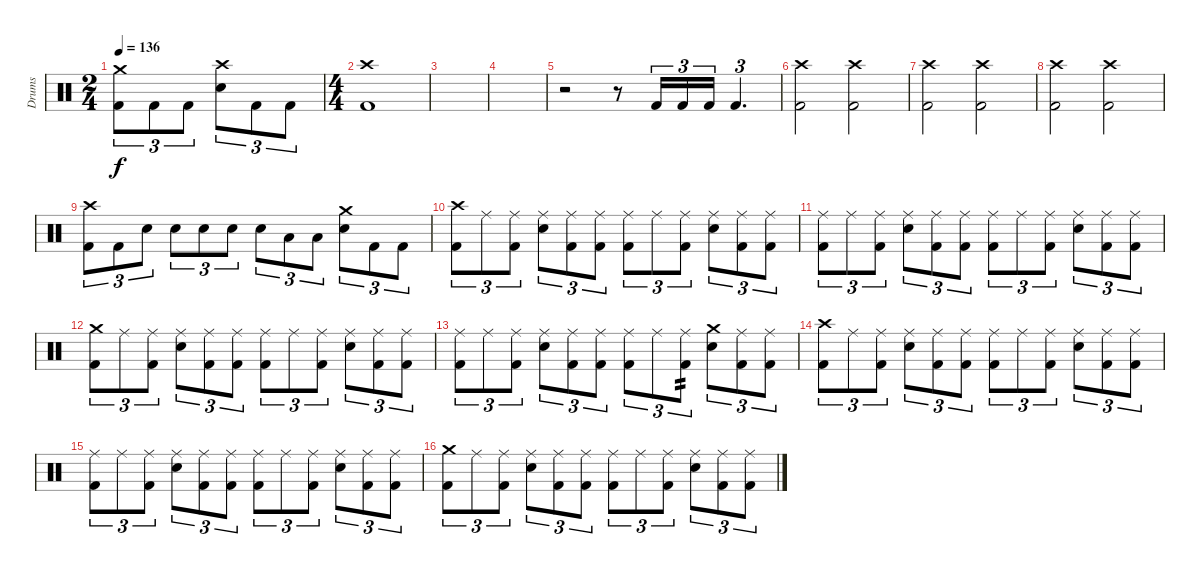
\track ("Drums" "Drums") {instrument percussion}
\staff {score}
\articulation defaults
\ts (2 4)
\tempo 136
\clef neutral
\ks c
("Crash medium (hit)" "Kick (hit) 2").8{tu (3 2) dy f} "Kick (hit) 2".8{tu (3 2)} "Kick (hit) 2".8{tu (3 2)} ("Crash high (hit)" "Electric Snare (hit)").8{tu (3 2)} "Kick (hit) 2".8{tu (3 2)} "Kick (hit) 2".8{tu (3 2)} |
\ts (4 4)
("Crash high (hit)" "Kick (hit) 2").1 |
|
|
r.2 r.8 "Kick (hit) 2".16{tu (3 2)} "Kick (hit) 2".16{tu (3 2)} "Kick (hit) 2".16{tu (3 2)} "Kick (hit) 2".4{d tu (3 2)} |
("Crash high (hit)" "Kick (hit) 2").2 ("Crash high (hit)" "Kick (hit) 2").2 |
("Crash high (hit)" "Kick (hit) 2").2 ("Crash high (hit)" "Kick (hit) 2").2 |
("Crash high (hit)" "Kick (hit) 2").2 ("Crash high (hit)" "Kick (hit) 2").2 |
("Crash high (hit)" "Kick (hit) 2").8{tu (3 2)} "Kick (hit) 2".8{tu (3 2)} "Electric Snare (hit)".8{tu (3 2)} "Electric Snare (hit)".8{tu (3 2)} "Electric Snare (hit)".8{tu (3 2)} "Electric Snare (hit)".8{tu (3 2)} "Electric Snare (hit)".8{tu (3 2)} "Low Floor Tom (hit)".8{tu (3 2)} "Low Floor Tom (hit)".8{tu (3 2)} ("Crash medium (hit)" "Electric Snare (hit)").8{tu (3 2)} "Kick (hit) 2".8{tu (3 2)} "Kick (hit) 2".8{tu (3 2)} |
("Crash high (hit)" "Kick (hit) 2").8{tu (3 2)} "Ride (middle)".8{tu (3 2)} ("Ride (middle)" "Kick (hit) 2").8{tu (3 2)} ("Ride (middle)" "Electric Snare (hit)").8{tu (3 2)} ("Ride (middle)" "Kick (hit) 2").8{tu (3 2)} ("Ride (middle)" "Kick (hit) 2").8{tu (3 2)} ("Ride (middle)" "Kick (hit) 2").8{tu (3 2)} "Ride (middle)".8{tu (3 2)} ("Ride (middle)" "Kick (hit) 2").8{tu (3 2)} ("Ride (middle)" "Electric Snare (hit)").8{tu (3 2)} ("Ride (middle)" "Kick (hit) 2").8{tu (3 2)} ("Ride (middle)" "Kick (hit) 2").8{tu (3 2)} |
("Ride (middle)" "Kick (hit) 2").8{tu (3 2)} "Ride (middle)".8{tu (3 2)} ("Ride (middle)" "Kick (hit) 2").8{tu (3 2)} ("Ride (middle)" "Electric Snare (hit)").8{tu (3 2)} ("Ride (middle)" "Kick (hit) 2").8{tu (3 2)} ("Ride (middle)" "Kick (hit) 2").8{tu (3 2)} ("Ride (middle)" "Kick (hit) 2").8{tu (3 2)} "Ride (middle)".8{tu (3 2)} ("Ride (middle)" "Kick (hit) 2").8{tu (3 2)} ("Ride (middle)" "Electric Snare (hit)").8{tu (3 2)} ("Ride (middle)" "Kick (hit) 2").8{tu (3 2)} ("Ride (middle)" "Kick (hit) 2").8{tu (3 2)} |
("Crash medium (hit)" "Kick (hit) 2").8{tu (3 2)} "Ride (middle)".8{tu (3 2)} ("Ride (middle)" "Kick (hit) 2").8{tu (3 2)} ("Ride (middle)" "Electric Snare (hit)").8{tu (3 2)} ("Ride (middle)" "Kick (hit) 2").8{tu (3 2)} ("Ride (middle)" "Kick (hit) 2").8{tu (3 2)} ("Ride (middle)" "Kick (hit) 2").8{tu (3 2)} "Ride (middle)".8{tu (3 2)} ("Ride (middle)" "Kick (hit) 2").8{tu (3 2)} ("Ride (middle)" "Electric Snare (hit)").8{tu (3 2)} ("Ride (middle)" "Kick (hit) 2").8{tu (3 2)} ("Ride (middle)" "Kick (hit) 2").8{tu (3 2)} |
("Ride (middle)" "Kick (hit) 2").8{tu (3 2)} "Ride (middle)".8{tu (3 2)} ("Ride (middle)" "Kick (hit) 2").8{tu (3 2)} ("Ride (middle)" "Electric Snare (hit)").8{tu (3 2)} ("Ride (middle)" "Kick (hit) 2").8{tu (3 2)} ("Ride (middle)" "Kick (hit) 2").8{tu (3 2)} ("Ride (middle)" "Kick (hit) 2").8{tu (3 2)} "Ride (middle)".8{tu (3 2)} ("Ride (middle)" "Kick (hit) 2").8{tu (3 2) tp 2} ("Crash medium (hit)" "Electric Snare (hit)").8{tu (3 2)} ("Ride (middle)" "Kick (hit) 2").8{tu (3 2)} ("Ride (middle)" "Kick (hit) 2").8{tu (3 2)} |
("Crash high (hit)" "Kick (hit) 2").8{tu (3 2)} "Ride (middle)".8{tu (3 2)} ("Ride (middle)" "Kick (hit) 2").8{tu (3 2)} ("Ride (middle)" "Electric Snare (hit)").8{tu (3 2)} ("Ride (middle)" "Kick (hit) 2").8{tu (3 2)} ("Ride (middle)" "Kick (hit) 2").8{tu (3 2)} ("Ride (middle)" "Kick (hit) 2").8{tu (3 2)} "Ride (middle)".8{tu (3 2)} ("Ride (middle)" "Kick (hit) 2").8{tu (3 2)} ("Ride (middle)" "Electric Snare (hit)").8{tu (3 2)} ("Ride (middle)" "Kick (hit) 2").8{tu (3 2)} ("Ride (middle)" "Kick (hit) 2").8{tu (3 2)} |
("Ride (middle)" "Kick (hit) 2").8{tu (3 2)} "Ride (middle)".8{tu (3 2)} ("Ride (middle)" "Kick (hit) 2").8{tu (3 2)} ("Ride (middle)" "Electric Snare (hit)").8{tu (3 2)} ("Ride (middle)" "Kick (hit) 2").8{tu (3 2)} ("Ride (middle)" "Kick (hit) 2").8{tu (3 2)} ("Ride (middle)" "Kick (hit) 2").8{tu (3 2)} "Ride (middle)".8{tu (3 2)} ("Ride (middle)" "Kick (hit) 2").8{tu (3 2)} ("Ride (middle)" "Electric Snare (hit)").8{tu (3 2)} ("Ride (middle)" "Kick (hit) 2").8{tu (3 2)} ("Ride (middle)" "Kick (hit) 2").8{tu (3 2)} |
("Crash medium (hit)" "Kick (hit) 2").8{tu (3 2)} "Ride (middle)".8{tu (3 2)} ("Ride (middle)" "Kick (hit) 2").8{tu (3 2)} ("Ride (middle)" "Electric Snare (hit)").8{tu (3 2)} ("Ride (middle)" "Kick (hit) 2").8{tu (3 2)} ("Ride (middle)" "Kick (hit) 2").8{tu (3 2)} ("Ride (middle)" "Kick (hit) 2").8{tu (3 2)} "Ride (middle)".8{tu (3 2)} ("Ride (middle)" "Kick (hit) 2").8{tu (3 2)} ("Ride (middle)" "Electric Snare (hit)").8{tu (3 2)} ("Ride (middle)" "Kick (hit) 2").8{tu (3 2)} ("Ride (middle)" "Kick (hit) 2").8{tu (3 2)}
